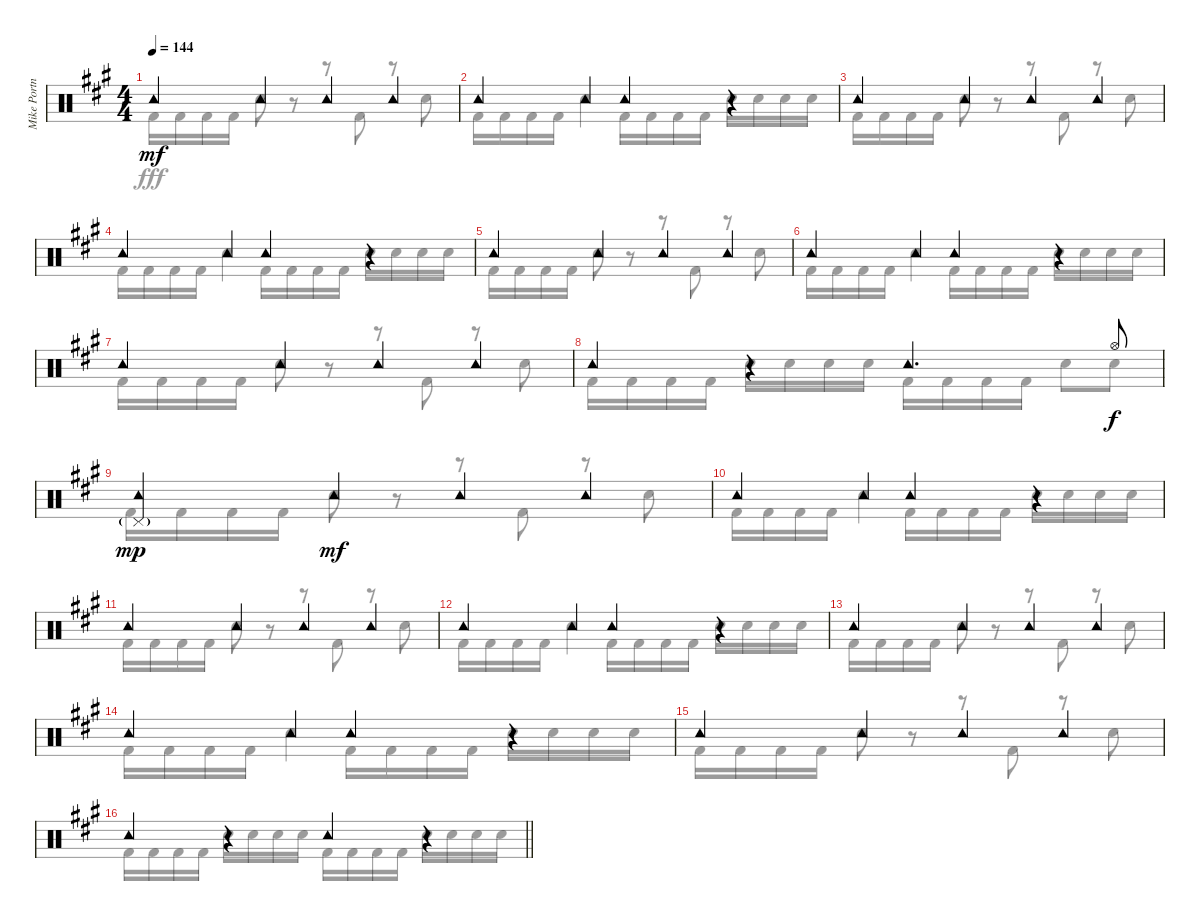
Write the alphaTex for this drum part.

\track ("Mike Portnoy Drums" "Mike Portn") {instrument percussion}
\staff {score}
\articulation defaults
\voice
\ts (4 4)
\tempo 144
\clef neutral
\ks f#minor "Tambourine (hit)".4{dy mf} "Tambourine (hit)".4 "Tambourine (hit)".4 "Tambourine (hit)".4
|
"Tambourine (hit)".4 "Tambourine (hit)".4 "Tambourine (hit)".4 r.4 |
"Tambourine (hit)".4 "Tambourine (hit)".4 "Tambourine (hit)".4 "Tambourine (hit)".4 |
"Tambourine (hit)".4 "Tambourine (hit)".4 "Tambourine (hit)".4 r.4 |
"Tambourine (hit)".4 "Tambourine (hit)".4 "Tambourine (hit)".4 "Tambourine (hit)".4 |
"Tambourine (hit)".4 "Tambourine (hit)".4 "Tambourine (hit)".4 r.4 |
"Tambourine (hit)".4 "Tambourine (hit)".4 "Tambourine (hit)".4 "Tambourine (hit)".4 |
"Tambourine (hit)".4 r.4 "Tambourine (hit)".4{d} "Hi-Hat (open)".8{dy f} |
("Tambourine (hit)" "Pedal Hi-Hat (hit)"{g}).4{dy mp} "Tambourine (hit)".4{dy mf} "Tambourine (hit)".4 "Tambourine (hit)".4 |
"Tambourine (hit)".4 "Tambourine (hit)".4 "Tambourine (hit)".4 r.4 |
"Tambourine (hit)".4 "Tambourine (hit)".4 "Tambourine (hit)".4 "Tambourine (hit)".4 |
"Tambourine (hit)".4 "Tambourine (hit)".4 "Tambourine (hit)".4 r.4 |
"Tambourine (hit)".4 "Tambourine (hit)".4 "Tambourine (hit)".4 "Tambourine (hit)".4 |
"Tambourine (hit)".4 "Tambourine (hit)".4 "Tambourine (hit)".4 r.4 |
"Tambourine (hit)".4 "Tambourine (hit)".4 "Tambourine (hit)".4 "Tambourine (hit)".4 |
\barLineRight lightlight "Tambourine (hit)".4
r.4 "Tambourine (hit)".4 r.4
\voice
\clef neutral
\ottava regular
\simile none
\ks f#minor "Kick (hit) 2".16{dy fff} "Kick (hit) 2".16 "Kick (hit) 2".16 "Kick (hit) 2".16 "Snare (hit) 2".8
r.8 r.8 "Kick (hit) 2".8 r.8 "Snare (hit) 2".8 |
"Kick (hit) 2".16 "Kick (hit) 2".16 "Kick (hit) 2".16 "Kick (hit) 2".16 "Snare (hit) 2".4 "Kick (hit) 2".16 "Kick (hit) 2".16 "Kick (hit) 2".16 "Kick (hit) 2".16 "Snare (hit) 2".16 "Snare (hit) 2".16 "Snare (hit) 2".16 "Snare (hit) 2".16 |
"Kick (hit) 2".16 "Kick (hit) 2".16 "Kick (hit) 2".16 "Kick (hit) 2".16 "Snare (hit) 2".8 r.8 r.8 "Kick (hit) 2".8 r.8 "Snare (hit) 2".8 |
"Kick (hit) 2".16 "Kick (hit) 2".16 "Kick (hit) 2".16 "Kick (hit) 2".16 "Snare (hit) 2".4 "Kick (hit) 2".16 "Kick (hit) 2".16 "Kick (hit) 2".16 "Kick (hit) 2".16 "Snare (hit) 2".16 "Snare (hit) 2".16 "Snare (hit) 2".16 "Snare (hit) 2".16 |
"Kick (hit) 2".16 "Kick (hit) 2".16 "Kick (hit) 2".16 "Kick (hit) 2".16 "Snare (hit) 2".8 r.8 r.8 "Kick (hit) 2".8 r.8 "Snare (hit) 2".8 |
"Kick (hit) 2".16 "Kick (hit) 2".16 "Kick (hit) 2".16 "Kick (hit) 2".16 "Snare (hit) 2".4 "Kick (hit) 2".16 "Kick (hit) 2".16 "Kick (hit) 2".16 "Kick (hit) 2".16 "Snare (hit) 2".16 "Snare (hit) 2".16 "Snare (hit) 2".16 "Snare (hit) 2".16 |
"Kick (hit) 2".16 "Kick (hit) 2".16 "Kick (hit) 2".16 "Kick (hit) 2".16 "Snare (hit) 2".8 r.8 r.8 "Kick (hit) 2".8 r.8 "Snare (hit) 2".8 |
"Kick (hit) 2".16 "Kick (hit) 2".16 "Kick (hit) 2".16 "Kick (hit) 2".16 "Snare (hit) 2".16 "Snare (hit) 2".16 "Snare (hit) 2".16 "Snare (hit) 2".16 "Kick (hit) 2".16 "Kick (hit) 2".16 "Kick (hit) 2".16 "Kick (hit) 2".16 "Snare (hit) 2".8 "Snare (hit) 2".8 |
"Kick (hit) 2".16 "Kick (hit) 2".16 "Kick (hit) 2".16 "Kick (hit) 2".16 "Snare (hit) 2".8 r.8 r.8 "Kick (hit) 2".8 r.8 "Snare (hit) 2".8 |
"Kick (hit) 2".16 "Kick (hit) 2".16 "Kick (hit) 2".16 "Kick (hit) 2".16 "Snare (hit) 2".4 "Kick (hit) 2".16 "Kick (hit) 2".16 "Kick (hit) 2".16 "Kick (hit) 2".16 "Snare (hit) 2".16 "Snare (hit) 2".16 "Snare (hit) 2".16 "Snare (hit) 2".16 |
"Kick (hit) 2".16 "Kick (hit) 2".16 "Kick (hit) 2".16 "Kick (hit) 2".16 "Snare (hit) 2".8 r.8 r.8 "Kick (hit) 2".8 r.8 "Snare (hit) 2".8 |
"Kick (hit) 2".16 "Kick (hit) 2".16 "Kick (hit) 2".16 "Kick (hit) 2".16 "Snare (hit) 2".4 "Kick (hit) 2".16 "Kick (hit) 2".16 "Kick (hit) 2".16 "Kick (hit) 2".16 "Snare (hit) 2".16 "Snare (hit) 2".16 "Snare (hit) 2".16 "Snare (hit) 2".16 |
"Kick (hit) 2".16 "Kick (hit) 2".16 "Kick (hit) 2".16 "Kick (hit) 2".16 "Snare (hit) 2".8 r.8 r.8 "Kick (hit) 2".8 r.8 "Snare (hit) 2".8 |
"Kick (hit) 2".16 "Kick (hit) 2".16 "Kick (hit) 2".16 "Kick (hit) 2".16 "Snare (hit) 2".4 "Kick (hit) 2".16 "Kick (hit) 2".16 "Kick (hit) 2".16 "Kick (hit) 2".16 "Snare (hit) 2".16 "Snare (hit) 2".16 "Snare (hit) 2".16 "Snare (hit) 2".16 |
"Kick (hit) 2".16 "Kick (hit) 2".16 "Kick (hit) 2".16 "Kick (hit) 2".16 "Snare (hit) 2".8 r.8 r.8 "Kick (hit) 2".8 r.8 "Snare (hit) 2".8 |
\barLineRight lightlight "Kick (hit) 2".16 "Kick (hit) 2".16 "Kick (hit) 2".16 "Kick (hit) 2".16 "Snare (hit) 2".16 "Snare (hit) 2".16 "Snare (hit) 2".16 "Snare (hit) 2".16 "Kick (hit) 2".16 "Kick (hit) 2".16 "Kick (hit) 2".16 "Kick (hit) 2".16 "Snare (hit) 2".16 "Snare (hit) 2".16 "Snare (hit) 2".16 "Snare (hit) 2".16
